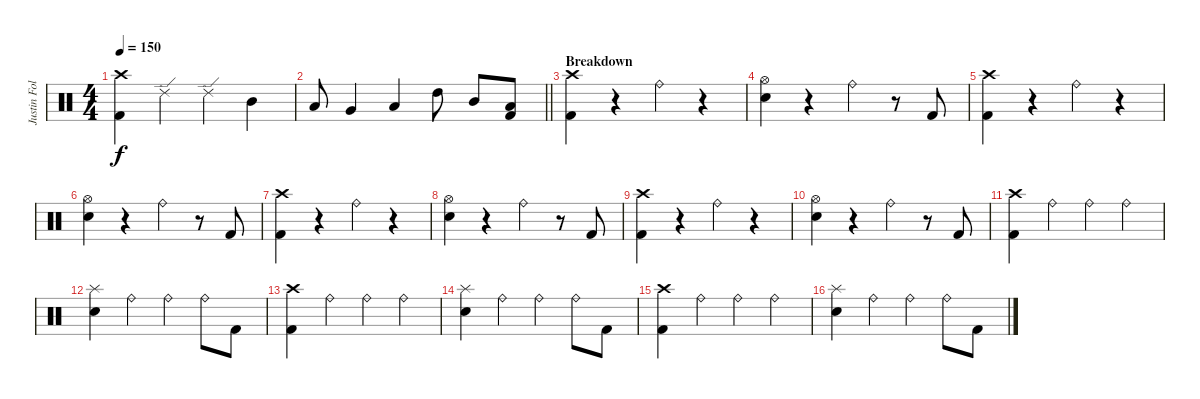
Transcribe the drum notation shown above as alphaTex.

\track ("Justin Foley" "Justin Fol") {instrument percussion}
\staff {score}
\articulation defaults
\ts (4 4)
\tempo 150
\clef neutral
\ks c
("Crash high (hit)" "Kick (hit) 2").4{dy f} "Ride (edge) 2".4 "Ride (edge) 2".4 "Mid Tom (hit)".4 |
\barLineRight lightlight "Low Tom (hit)".8 "Very Low Tom (hit)".4 "Low Floor Tom (hit)".4 "High Tom (hit)".8 "Mid Tom (hit)".8
("Low Tom (hit)" "Kick (hit) 2").8 |
\section ("" "Breakdown")
("Crash high (hit)" "Kick (hit) 2").4 r.4 "Ride (bell)".4 r.4 |
("Hi-Hat (open)" "Snare (hit) 2").4 r.4 "Ride (bell)".4 r.8 "Kick (hit) 2".8 |
("Crash high (hit)" "Kick (hit) 2").4 r.4 "Ride (bell)".4 r.4 |
("Hi-Hat (open)" "Snare (hit) 2").4 r.4 "Ride (bell)".4 r.8 "Kick (hit) 2".8 |
("Crash high (hit)" "Kick (hit) 2").4 r.4 "Ride (bell)".4 r.4 |
("Hi-Hat (open)" "Snare (hit) 2").4 r.4 "Ride (bell)".4 r.8 "Kick (hit) 2".8 |
("Crash high (hit)" "Kick (hit) 2").4 r.4 "Ride (bell)".4 r.4 |
("Hi-Hat (open)" "Snare (hit) 2").4 r.4 "Ride (bell)".4 r.8 "Kick (hit) 2".8 |
("Crash high (hit)" "Kick (hit) 2").4 "Ride (bell)".4 "Ride (bell)".4 "Ride (bell)".4 |
("Splash (hit)" "Snare (hit) 2").4 "Ride (bell)".4 "Ride (bell)".4 "Ride (bell)".8 "Kick (hit) 2".8 |
("Crash high (hit)" "Kick (hit) 2").4 "Ride (bell)".4 "Ride (bell)".4 "Ride (bell)".4 |
("Splash (hit)" "Snare (hit) 2").4 "Ride (bell)".4 "Ride (bell)".4 "Ride (bell)".8 "Kick (hit) 2".8 |
("Crash high (hit)" "Kick (hit) 2").4 "Ride (bell)".4 "Ride (bell)".4 "Ride (bell)".4 |
("Splash (hit)" "Snare (hit) 2").4 "Ride (bell)".4 "Ride (bell)".4 "Ride (bell)".8 "Kick (hit) 2".8
